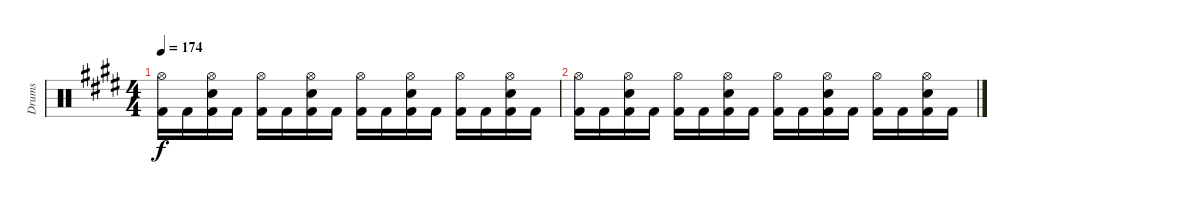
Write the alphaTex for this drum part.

\track ("Drums" "Drums") {instrument percussion}
\staff {score}
\articulation defaults
\ts (4 4)
\tempo 174
\clef neutral
\ks e
("Hi-Hat (open)" "Kick (hit) 2").16{dy f} "Kick (hit) 2".16 ("Hi-Hat (open)" "Snare (hit) 2" "Kick (hit) 2").16 "Kick (hit) 2".16 ("Hi-Hat (open)" "Kick (hit) 2").16 "Kick (hit) 2".16 ("Hi-Hat (open)" "Snare (hit) 2" "Kick (hit) 2").16 "Kick (hit) 2".16 ("Hi-Hat (open)" "Kick (hit) 2").16 "Kick (hit) 2".16 ("Hi-Hat (open)" "Snare (hit) 2" "Kick (hit) 2").16 "Kick (hit) 2".16 ("Hi-Hat (open)" "Kick (hit) 2").16 "Kick (hit) 2".16 ("Hi-Hat (open)" "Snare (hit) 2" "Kick (hit) 2").16 "Kick (hit) 2".16 |
("Hi-Hat (open)" "Kick (hit) 2").16 "Kick (hit) 2".16 ("Hi-Hat (open)" "Snare (hit) 2" "Kick (hit) 2").16 "Kick (hit) 2".16 ("Hi-Hat (open)" "Kick (hit) 2").16 "Kick (hit) 2".16 ("Hi-Hat (open)" "Snare (hit) 2" "Kick (hit) 2").16 "Kick (hit) 2".16 ("Hi-Hat (open)" "Kick (hit) 2").16 "Kick (hit) 2".16 ("Hi-Hat (open)" "Snare (hit) 2" "Kick (hit) 2").16 "Kick (hit) 2".16 ("Hi-Hat (open)" "Kick (hit) 2").16 "Kick (hit) 2".16 ("Hi-Hat (open)" "Snare (hit) 2" "Kick (hit) 2").16 "Kick (hit) 2".16
